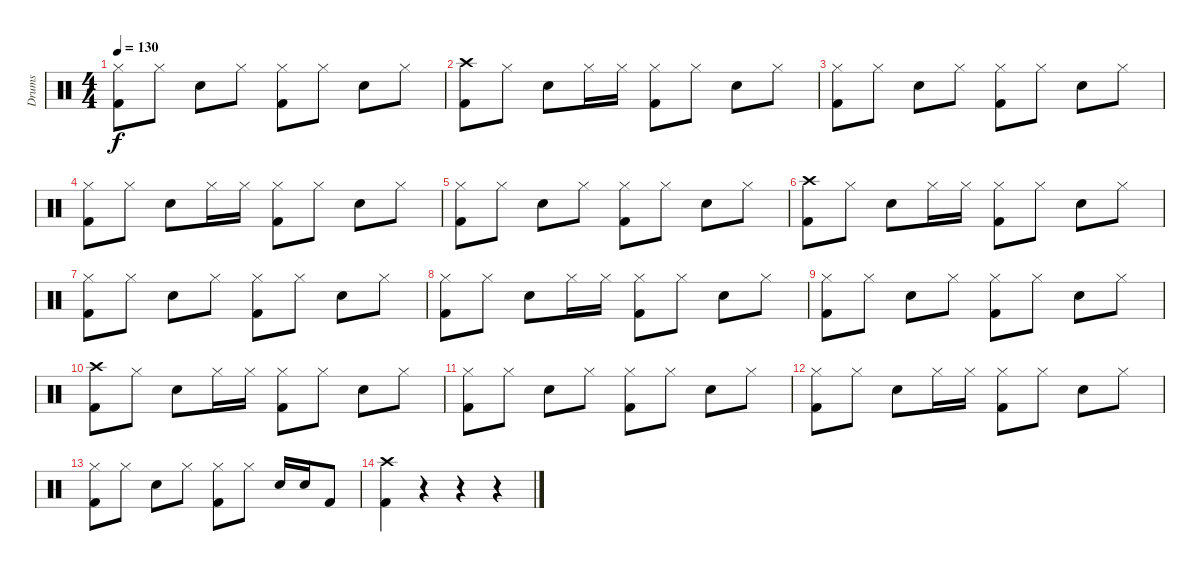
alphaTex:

\track ("Drums" "Drums") {instrument percussion}
\staff {score}
\articulation defaults
\ts (4 4)
\tempo 130
\clef neutral
\ks c
("Hi-Hat (closed)" "Kick (hit) 2").8{dy f} "Hi-Hat (closed)".8 "Snare (hit) 2".8 "Hi-Hat (closed)".8 ("Hi-Hat (closed)" "Kick (hit) 2").8 "Hi-Hat (closed)".8 "Snare (hit) 2".8 "Hi-Hat (closed)".8 |
("Crash high (hit)" "Kick (hit) 2").8 "Hi-Hat (closed)".8 "Snare (hit) 2".8 "Hi-Hat (closed)".16 "Hi-Hat (closed)".16 ("Hi-Hat (closed)" "Kick (hit) 2").8 "Hi-Hat (closed)".8 "Snare (hit) 2".8 "Hi-Hat (closed)".8 |
("Hi-Hat (closed)" "Kick (hit) 2").8 "Hi-Hat (closed)".8 "Snare (hit) 2".8 "Hi-Hat (closed)".8 ("Hi-Hat (closed)" "Kick (hit) 2").8 "Hi-Hat (closed)".8 "Snare (hit) 2".8 "Hi-Hat (closed)".8 |
("Hi-Hat (closed)" "Kick (hit) 2").8 "Hi-Hat (closed)".8 "Snare (hit) 2".8 "Hi-Hat (closed)".16 "Hi-Hat (closed)".16 ("Hi-Hat (closed)" "Kick (hit) 2").8 "Hi-Hat (closed)".8 "Snare (hit) 2".8 "Hi-Hat (closed)".8 |
("Hi-Hat (closed)" "Kick (hit) 2").8 "Hi-Hat (closed)".8 "Snare (hit) 2".8 "Hi-Hat (closed)".8 ("Hi-Hat (closed)" "Kick (hit) 2").8 "Hi-Hat (closed)".8 "Snare (hit) 2".8 "Hi-Hat (closed)".8 |
("Crash high (hit)" "Kick (hit) 2").8 "Hi-Hat (closed)".8 "Snare (hit) 2".8 "Hi-Hat (closed)".16 "Hi-Hat (closed)".16 ("Hi-Hat (closed)" "Kick (hit) 2").8 "Hi-Hat (closed)".8 "Snare (hit) 2".8 "Hi-Hat (closed)".8 |
("Hi-Hat (closed)" "Kick (hit) 2").8 "Hi-Hat (closed)".8 "Snare (hit) 2".8 "Hi-Hat (closed)".8 ("Hi-Hat (closed)" "Kick (hit) 2").8 "Hi-Hat (closed)".8 "Snare (hit) 2".8 "Hi-Hat (closed)".8 |
("Hi-Hat (closed)" "Kick (hit) 2").8 "Hi-Hat (closed)".8 "Snare (hit) 2".8 "Hi-Hat (closed)".16 "Hi-Hat (closed)".16 ("Hi-Hat (closed)" "Kick (hit) 2").8 "Hi-Hat (closed)".8 "Snare (hit) 2".8 "Hi-Hat (closed)".8 |
("Hi-Hat (closed)" "Kick (hit) 2").8 "Hi-Hat (closed)".8 "Snare (hit) 2".8 "Hi-Hat (closed)".8 ("Hi-Hat (closed)" "Kick (hit) 2").8 "Hi-Hat (closed)".8 "Snare (hit) 2".8 "Hi-Hat (closed)".8 |
("Crash high (hit)" "Kick (hit) 2").8 "Hi-Hat (closed)".8 "Snare (hit) 2".8 "Hi-Hat (closed)".16 "Hi-Hat (closed)".16 ("Hi-Hat (closed)" "Kick (hit) 2").8 "Hi-Hat (closed)".8 "Snare (hit) 2".8 "Hi-Hat (closed)".8 |
("Hi-Hat (closed)" "Kick (hit) 2").8 "Hi-Hat (closed)".8 "Snare (hit) 2".8 "Hi-Hat (closed)".8 ("Hi-Hat (closed)" "Kick (hit) 2").8 "Hi-Hat (closed)".8 "Snare (hit) 2".8 "Hi-Hat (closed)".8 |
("Hi-Hat (closed)" "Kick (hit) 2").8 "Hi-Hat (closed)".8 "Snare (hit) 2".8 "Hi-Hat (closed)".16 "Hi-Hat (closed)".16 ("Hi-Hat (closed)" "Kick (hit) 2").8 "Hi-Hat (closed)".8 "Snare (hit) 2".8 "Hi-Hat (closed)".8 |
("Hi-Hat (closed)" "Kick (hit) 2").8 "Hi-Hat (closed)".8 "Snare (hit) 2".8 "Hi-Hat (closed)".8 ("Hi-Hat (closed)" "Kick (hit) 2").8 "Hi-Hat (closed)".8 "Snare (hit) 2".16 "Snare (hit) 2".16 "Kick (hit) 2".8 |
("Crash high (hit)" "Kick (hit) 2").4 r.4 r.4 r.4
